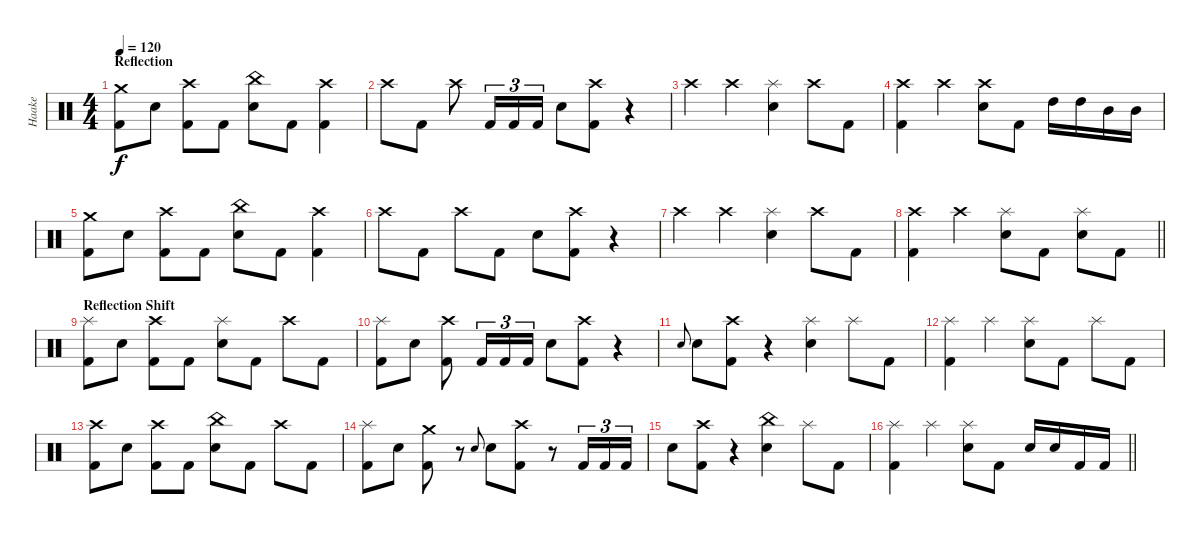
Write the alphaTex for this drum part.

\track ("Haake" "Haake") {instrument percussion}
\staff {score}
\articulation defaults
\ts (4 4)
\section ("" "Reflection")
\tempo 120
\clef neutral
\ks c
("Crash medium (hit)" "Kick (hit) 2").8{dy f} "Electric Snare (hit)".8 ("Crash high (hit)" "Kick (hit) 2").8 "Kick (hit) 2".8 ("China (hit)" "Electric Snare (hit)").8 "Kick (hit) 2".8 ("Crash high (hit)" "Kick (hit) 2").4 |
"Crash high (hit)".8 "Kick (hit) 2".8 "Crash high (hit)".8 "Kick (hit) 2".16{tu (3 2)} "Kick (hit) 2".16{tu (3 2)} "Kick (hit) 2".16{tu (3 2)} "Electric Snare (hit)".8 ("Crash high (hit)" "Kick (hit) 2").8 r.4 |
"Crash high (hit)".4 "Crash high (hit)".4 ("Splash (hit)" "Electric Snare (hit)").4 "Crash high (hit)".8 "Kick (hit) 2".8 |
("Crash high (hit)" "Kick (hit) 2").4 "Crash high (hit)".4 ("Crash high (hit)" "Electric Snare (hit)").8 "Kick (hit) 2".8 "High Tom (hit)".16 "High Tom (hit)".16 "Mid Tom (hit)".16 "Mid Tom (hit)".16 |
("Crash medium (hit)" "Kick (hit) 2").8 "Electric Snare (hit)".8 ("Crash high (hit)" "Kick (hit) 2").8 "Kick (hit) 2".8 ("China (hit)" "Electric Snare (hit)").8 "Kick (hit) 2".8 ("Crash high (hit)" "Kick (hit) 2").4 |
"Crash high (hit)".8 "Kick (hit) 2".8 "Crash high (hit)".8 "Kick (hit) 2".8 "Electric Snare (hit)".8 ("Crash high (hit)" "Kick (hit) 2").8 r.4 |
"Crash high (hit)".4 "Crash high (hit)".4 ("Splash (hit)" "Electric Snare (hit)").4 "Crash high (hit)".8 "Kick (hit) 2".8 |
\barLineRight lightlight
("Crash high (hit)" "Kick (hit) 2").4 "Crash high (hit)".4 ("Splash (hit)" "Electric Snare (hit)").8 "Kick (hit) 2".8 ("Splash (hit)" "Electric Snare (hit)").8 "Kick (hit) 2".8 |
\section ("" "Reflection Shift")
("Splash (hit)" "Kick (hit) 2").8 "Electric Snare (hit)".8 ("Crash high (hit)" "Kick (hit) 2").8 "Kick (hit) 2".8 ("Splash (hit)" "Electric Snare (hit)").8 "Kick (hit) 2".8 "Crash high (hit)".8 "Kick (hit) 2".8 |
("Splash (hit)" "Kick (hit) 2").8 "Electric Snare (hit)".8 ("Crash high (hit)" "Kick (hit) 2").8 "Kick (hit) 2".16{tu (3 2)} "Kick (hit) 2".16{tu (3 2)} "Kick (hit) 2".16{tu (3 2)} "Electric Snare (hit)".8 ("Crash high (hit)" "Kick (hit) 2").8 r.4 |
"Electric Snare (hit)".8{gr onbeat} "Electric Snare (hit)".8 ("Crash high (hit)" "Kick (hit) 2").8 r.4 ("Splash (hit)" "Electric Snare (hit)").4 "Splash (hit)".8 "Kick (hit) 2".8 |
("Splash (hit)" "Kick (hit) 2").4 "Splash (hit)".4 ("Splash (hit)" "Electric Snare (hit)").8 "Kick (hit) 2".8 "Splash (hit)".8 "Kick (hit) 2".8 |
("Crash high (hit)" "Kick (hit) 2").8 "Electric Snare (hit)".8 ("Crash high (hit)" "Kick (hit) 2").8 "Kick (hit) 2".8 ("China (hit)" "Electric Snare (hit)").8 "Kick (hit) 2".8 "Crash high (hit)".8 "Kick (hit) 2".8 |
("Splash (hit)" "Kick (hit) 2").8 "Electric Snare (hit)".8 ("Crash medium (hit)" "Kick (hit) 2").8 r.8 "Electric Snare (hit)".8{gr onbeat} "Electric Snare (hit)".8 ("Crash high (hit)" "Kick (hit) 2").8 r.8 "Kick (hit) 2".16{tu (3 2)} "Kick (hit) 2".16{tu (3 2)} "Kick (hit) 2".16{tu (3 2)} |
"Electric Snare (hit)".8 ("Crash high (hit)" "Kick (hit) 2").8 r.4 ("China (hit)" "Electric Snare (hit)").4 "Splash (hit)".8 "Kick (hit) 2".8 |
\barLineRight lightlight
("Splash (hit)" "Kick (hit) 2").4 "Splash (hit)".4 ("Splash (hit)" "Electric Snare (hit)").8 "Kick (hit) 2".8 "Electric Snare (hit)".16 "Electric Snare (hit)".16 "Kick (hit) 2".16 "Kick (hit) 2".16
